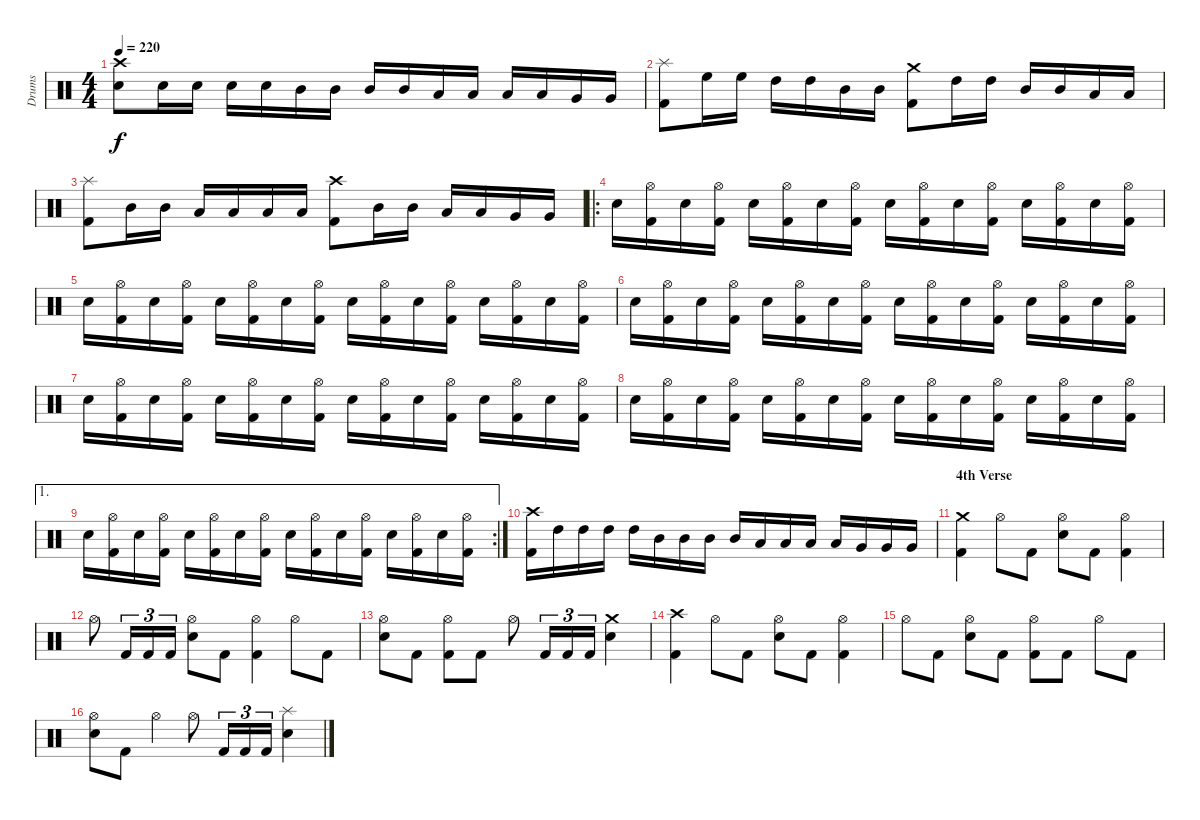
\track ("Drums" "Drums") {instrument percussion}
\staff {score}
\articulation defaults
\ts (4 4)
\tempo 220
\clef neutral
\ks c
("Crash high (hit)" "Electric Snare (hit)").8{dy f} "Electric Snare (hit)".16 "Electric Snare (hit)".16 "Electric Snare (hit)".16 "Electric Snare (hit)".16 "Mid Tom (hit)".16 "Mid Tom (hit)".16 "Mid Tom (hit)".16 "Mid Tom (hit)".16 "Low Tom (hit)".16 "Low Tom (hit)".16 "Low Tom (hit)".16 "Low Tom (hit)".16 "Very Low Tom (hit)".16 "Very Low Tom (hit)".16 |
("Splash (hit)" "Kick (hit) 2").8 "High Floor Tom (hit)".16 "High Floor Tom (hit)".16 "High Tom (hit)".16 "High Tom (hit)".16 "Mid Tom (hit)".16 "Mid Tom (hit)".16 ("Crash medium (hit)" "Kick (hit) 2").8 "High Tom (hit)".16 "High Tom (hit)".16 "Mid Tom (hit)".16 "Mid Tom (hit)".16 "Low Tom (hit)".16 "Low Tom (hit)".16 |
("Splash (hit)" "Kick (hit) 2").8 "Mid Tom (hit)".16 "Mid Tom (hit)".16 "Low Tom (hit)".16 "Low Tom (hit)".16 "Low Tom (hit)".16 "Low Tom (hit)".16 ("Crash high (hit)" "Kick (hit) 2").8 "Mid Tom (hit)".16 "Mid Tom (hit)".16 "Low Tom (hit)".16 "Low Tom (hit)".16 "Very Low Tom (hit)".16 "Very Low Tom (hit)".16 |
\ro "Electric Snare (hit)".16
("Hi-Hat (open)" "Kick (hit) 2").16 "Electric Snare (hit)".16 ("Hi-Hat (open)" "Kick (hit) 2").16 "Electric Snare (hit)".16 ("Hi-Hat (open)" "Kick (hit) 2").16 "Electric Snare (hit)".16 ("Hi-Hat (open)" "Kick (hit) 2").16 "Electric Snare (hit)".16 ("Hi-Hat (open)" "Kick (hit) 2").16 "Electric Snare (hit)".16 ("Hi-Hat (open)" "Kick (hit) 2").16 "Electric Snare (hit)".16 ("Hi-Hat (open)" "Kick (hit) 2").16 "Electric Snare (hit)".16 ("Hi-Hat (open)" "Kick (hit) 2").16 |
"Electric Snare (hit)".16 ("Hi-Hat (open)" "Kick (hit) 2").16 "Electric Snare (hit)".16 ("Hi-Hat (open)" "Kick (hit) 2").16 "Electric Snare (hit)".16 ("Hi-Hat (open)" "Kick (hit) 2").16 "Electric Snare (hit)".16 ("Hi-Hat (open)" "Kick (hit) 2").16 "Electric Snare (hit)".16 ("Hi-Hat (open)" "Kick (hit) 2").16 "Electric Snare (hit)".16 ("Hi-Hat (open)" "Kick (hit) 2").16 "Electric Snare (hit)".16 ("Hi-Hat (open)" "Kick (hit) 2").16 "Electric Snare (hit)".16 ("Hi-Hat (open)" "Kick (hit) 2").16 |
"Electric Snare (hit)".16 ("Hi-Hat (open)" "Kick (hit) 2").16 "Electric Snare (hit)".16 ("Hi-Hat (open)" "Kick (hit) 2").16 "Electric Snare (hit)".16 ("Hi-Hat (open)" "Kick (hit) 2").16 "Electric Snare (hit)".16 ("Hi-Hat (open)" "Kick (hit) 2").16 "Electric Snare (hit)".16 ("Hi-Hat (open)" "Kick (hit) 2").16 "Electric Snare (hit)".16 ("Hi-Hat (open)" "Kick (hit) 2").16 "Electric Snare (hit)".16 ("Hi-Hat (open)" "Kick (hit) 2").16 "Electric Snare (hit)".16 ("Hi-Hat (open)" "Kick (hit) 2").16 |
"Electric Snare (hit)".16 ("Hi-Hat (open)" "Kick (hit) 2").16 "Electric Snare (hit)".16 ("Hi-Hat (open)" "Kick (hit) 2").16 "Electric Snare (hit)".16 ("Hi-Hat (open)" "Kick (hit) 2").16 "Electric Snare (hit)".16 ("Hi-Hat (open)" "Kick (hit) 2").16 "Electric Snare (hit)".16 ("Hi-Hat (open)" "Kick (hit) 2").16 "Electric Snare (hit)".16 ("Hi-Hat (open)" "Kick (hit) 2").16 "Electric Snare (hit)".16 ("Hi-Hat (open)" "Kick (hit) 2").16 "Electric Snare (hit)".16 ("Hi-Hat (open)" "Kick (hit) 2").16 |
"Electric Snare (hit)".16 ("Hi-Hat (open)" "Kick (hit) 2").16 "Electric Snare (hit)".16 ("Hi-Hat (open)" "Kick (hit) 2").16 "Electric Snare (hit)".16 ("Hi-Hat (open)" "Kick (hit) 2").16 "Electric Snare (hit)".16 ("Hi-Hat (open)" "Kick (hit) 2").16 "Electric Snare (hit)".16 ("Hi-Hat (open)" "Kick (hit) 2").16 "Electric Snare (hit)".16 ("Hi-Hat (open)" "Kick (hit) 2").16 "Electric Snare (hit)".16 ("Hi-Hat (open)" "Kick (hit) 2").16 "Electric Snare (hit)".16 ("Hi-Hat (open)" "Kick (hit) 2").16 |
\ae 1
\rc 2 "Electric Snare (hit)".16
("Hi-Hat (open)" "Kick (hit) 2").16 "Electric Snare (hit)".16 ("Hi-Hat (open)" "Kick (hit) 2").16 "Electric Snare (hit)".16 ("Hi-Hat (open)" "Kick (hit) 2").16 "Electric Snare (hit)".16 ("Hi-Hat (open)" "Kick (hit) 2").16 "Electric Snare (hit)".16 ("Hi-Hat (open)" "Kick (hit) 2").16 "Electric Snare (hit)".16 ("Hi-Hat (open)" "Kick (hit) 2").16 "Electric Snare (hit)".16 ("Hi-Hat (open)" "Kick (hit) 2").16 "Electric Snare (hit)".16 ("Hi-Hat (open)" "Kick (hit) 2").16 |
("Crash high (hit)" "Kick (hit) 2").16 "High Tom (hit)".16 "High Tom (hit)".16 "High Tom (hit)".16 "High Tom (hit)".16 "Mid Tom (hit)".16 "Mid Tom (hit)".16 "Mid Tom (hit)".16 "Mid Tom (hit)".16 "Low Tom (hit)".16 "Low Tom (hit)".16 "Low Tom (hit)".16 "Low Tom (hit)".16 "Very Low Tom (hit)".16 "Very Low Tom (hit)".16 "Very Low Tom (hit)".16 |
\section ("" "4th Verse")
("Crash medium (hit)" "Kick (hit) 2").4 "Hi-Hat (open)".8 "Kick (hit) 2".8 ("Hi-Hat (open)" "Electric Snare (hit)").8 "Kick (hit) 2".8 ("Hi-Hat (open)" "Kick (hit) 2").4 |
"Hi-Hat (open)".8 "Kick (hit) 2".16{tu (3 2)} "Kick (hit) 2".16{tu (3 2)} "Kick (hit) 2".16{tu (3 2)} ("Hi-Hat (open)" "Electric Snare (hit)").8 "Kick (hit) 2".8 ("Hi-Hat (open)" "Kick (hit) 2").4 "Hi-Hat (open)".8 "Kick (hit) 2".8 |
("Hi-Hat (open)" "Electric Snare (hit)").8 "Kick (hit) 2".8 ("Hi-Hat (open)" "Kick (hit) 2").8 "Kick (hit) 2".8 "Hi-Hat (open)".8 "Kick (hit) 2".16{tu (3 2)} "Kick (hit) 2".16{tu (3 2)} "Kick (hit) 2".16{tu (3 2)} ("Crash medium (hit)" "Electric Snare (hit)").4 |
("Crash high (hit)" "Kick (hit) 2").4 "Hi-Hat (open)".8 "Kick (hit) 2".8 ("Hi-Hat (open)" "Electric Snare (hit)").8 "Kick (hit) 2".8 ("Hi-Hat (open)" "Kick (hit) 2").4 |
"Hi-Hat (open)".8 "Kick (hit) 2".8 ("Hi-Hat (open)" "Electric Snare (hit)").8 "Kick (hit) 2".8 ("Hi-Hat (open)" "Kick (hit) 2").8 "Kick (hit) 2".8 "Hi-Hat (open)".8 "Kick (hit) 2".8 |
("Hi-Hat (open)" "Electric Snare (hit)").8 "Kick (hit) 2".8 "Hi-Hat (open)".4 "Hi-Hat (open)".8 "Kick (hit) 2".16{tu (3 2)} "Kick (hit) 2".16{tu (3 2)} "Kick (hit) 2".16{tu (3 2)} ("Splash (hit)" "Electric Snare (hit)").4
